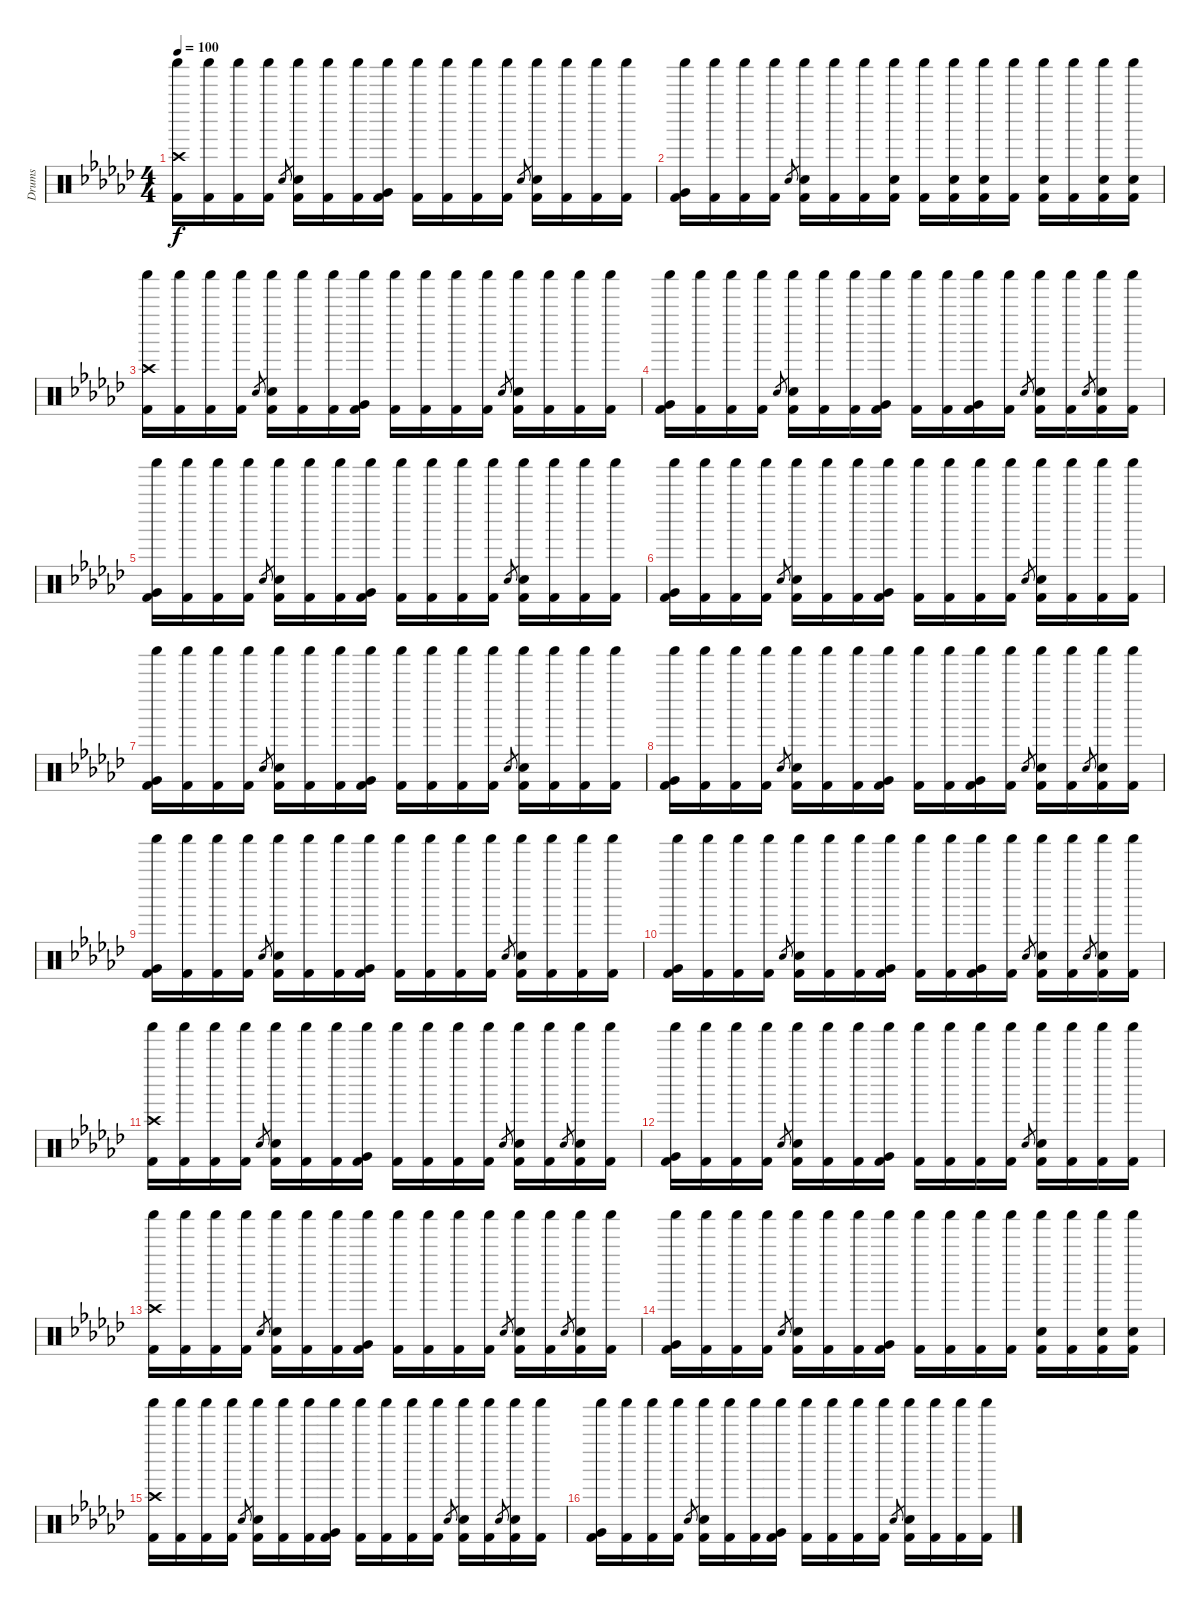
\track ("Drums" "Drums") {instrument percussion}
\staff {score}
\articulation defaults
\ts (4 4)
\tempo 100
\clef neutral
\ks gb
("Crash high (hit)" "Shaker (hit)" "Kick (hit) 2").16{dy f} ("Shaker (hit)" "Kick (hit) 2").16 ("Shaker (hit)" "Kick (hit) 2").16 ("Shaker (hit)" "Kick (hit) 2").16 "Electric Snare (hit)".8{gr} ("Shaker (hit)" "Electric Snare (hit)" "Kick (hit) 2").16 ("Shaker (hit)" "Kick (hit) 2").16 ("Shaker (hit)" "Kick (hit) 2").16 ("Shaker (hit)" "Very Low Tom (hit)" "Kick (hit) 2").16 ("Shaker (hit)" "Kick (hit) 2").16 ("Shaker (hit)" "Kick (hit) 2").16 ("Shaker (hit)" "Kick (hit) 2").16 ("Shaker (hit)" "Kick (hit) 2").16 "Electric Snare (hit)".8{gr} ("Shaker (hit)" "Electric Snare (hit)" "Kick (hit) 2").16 ("Shaker (hit)" "Kick (hit) 2").16 ("Shaker (hit)" "Kick (hit) 2").16 ("Shaker (hit)" "Kick (hit) 2").16 |
("Shaker (hit)" "Very Low Tom (hit)" "Kick (hit) 2").16 ("Shaker (hit)" "Kick (hit) 2").16 ("Shaker (hit)" "Kick (hit) 2").16 ("Shaker (hit)" "Kick (hit) 2").16 "Electric Snare (hit)".8{gr} ("Shaker (hit)" "Electric Snare (hit)" "Kick (hit) 2").16 ("Shaker (hit)" "Kick (hit) 2").16 ("Shaker (hit)" "Kick (hit) 2").16 ("Shaker (hit)" "Electric Snare (hit)" "Kick (hit) 2").16 ("Shaker (hit)" "Kick (hit) 2").16 ("Shaker (hit)" "Electric Snare (hit)" "Kick (hit) 2").16 ("Shaker (hit)" "Electric Snare (hit)" "Kick (hit) 2").16 ("Shaker (hit)" "Kick (hit) 2").16 ("Shaker (hit)" "Electric Snare (hit)" "Kick (hit) 2").16 ("Shaker (hit)" "Kick (hit) 2").16 ("Shaker (hit)" "Electric Snare (hit)" "Kick (hit) 2").16 ("Shaker (hit)" "Electric Snare (hit)" "Kick (hit) 2").16 |
("Crash high (hit)" "Shaker (hit)" "Kick (hit) 2").16 ("Shaker (hit)" "Kick (hit) 2").16 ("Shaker (hit)" "Kick (hit) 2").16 ("Shaker (hit)" "Kick (hit) 2").16 "Electric Snare (hit)".8{gr} ("Shaker (hit)" "Electric Snare (hit)" "Kick (hit) 2").16 ("Shaker (hit)" "Kick (hit) 2").16 ("Shaker (hit)" "Kick (hit) 2").16 ("Shaker (hit)" "Very Low Tom (hit)" "Kick (hit) 2").16 ("Shaker (hit)" "Kick (hit) 2").16 ("Shaker (hit)" "Kick (hit) 2").16 ("Shaker (hit)" "Kick (hit) 2").16 ("Shaker (hit)" "Kick (hit) 2").16 "Electric Snare (hit)".8{gr} ("Shaker (hit)" "Electric Snare (hit)" "Kick (hit) 2").16 ("Shaker (hit)" "Kick (hit) 2").16 ("Shaker (hit)" "Kick (hit) 2").16 ("Shaker (hit)" "Kick (hit) 2").16 |
("Shaker (hit)" "Very Low Tom (hit)" "Kick (hit) 2").16 ("Shaker (hit)" "Kick (hit) 2").16 ("Shaker (hit)" "Kick (hit) 2").16 ("Shaker (hit)" "Kick (hit) 2").16 "Electric Snare (hit)".8{gr} ("Shaker (hit)" "Electric Snare (hit)" "Kick (hit) 2").16 ("Shaker (hit)" "Kick (hit) 2").16 ("Shaker (hit)" "Kick (hit) 2").16 ("Shaker (hit)" "Very Low Tom (hit)" "Kick (hit) 2").16 ("Shaker (hit)" "Kick (hit) 2").16 ("Shaker (hit)" "Kick (hit) 2").16 ("Shaker (hit)" "Very Low Tom (hit)" "Kick (hit) 2").16 ("Shaker (hit)" "Kick (hit) 2").16 "Electric Snare (hit)".8{gr} ("Shaker (hit)" "Electric Snare (hit)" "Kick (hit) 2").16 ("Shaker (hit)" "Kick (hit) 2").16 "Electric Snare (hit)".8{gr} ("Shaker (hit)" "Electric Snare (hit)" "Kick (hit) 2").16 ("Shaker (hit)" "Kick (hit) 2").16 |
("Shaker (hit)" "Very Low Tom (hit)" "Kick (hit) 2").16 ("Shaker (hit)" "Kick (hit) 2").16 ("Shaker (hit)" "Kick (hit) 2").16 ("Shaker (hit)" "Kick (hit) 2").16 "Electric Snare (hit)".8{gr} ("Shaker (hit)" "Electric Snare (hit)" "Kick (hit) 2").16 ("Shaker (hit)" "Kick (hit) 2").16 ("Shaker (hit)" "Kick (hit) 2").16 ("Shaker (hit)" "Very Low Tom (hit)" "Kick (hit) 2").16 ("Shaker (hit)" "Kick (hit) 2").16 ("Shaker (hit)" "Kick (hit) 2").16 ("Shaker (hit)" "Kick (hit) 2").16 ("Shaker (hit)" "Kick (hit) 2").16 "Electric Snare (hit)".8{gr} ("Shaker (hit)" "Electric Snare (hit)" "Kick (hit) 2").16 ("Shaker (hit)" "Kick (hit) 2").16 ("Shaker (hit)" "Kick (hit) 2").16 ("Shaker (hit)" "Kick (hit) 2").16 |
("Shaker (hit)" "Very Low Tom (hit)" "Kick (hit) 2").16 ("Shaker (hit)" "Kick (hit) 2").16 ("Shaker (hit)" "Kick (hit) 2").16 ("Shaker (hit)" "Kick (hit) 2").16 "Electric Snare (hit)".8{gr} ("Shaker (hit)" "Electric Snare (hit)" "Kick (hit) 2").16 ("Shaker (hit)" "Kick (hit) 2").16 ("Shaker (hit)" "Kick (hit) 2").16 ("Shaker (hit)" "Very Low Tom (hit)" "Kick (hit) 2").16 ("Shaker (hit)" "Kick (hit) 2").16 ("Shaker (hit)" "Kick (hit) 2").16 ("Shaker (hit)" "Kick (hit) 2").16 ("Shaker (hit)" "Kick (hit) 2").16 "Electric Snare (hit)".8{gr} ("Shaker (hit)" "Electric Snare (hit)" "Kick (hit) 2").16 ("Shaker (hit)" "Kick (hit) 2").16 ("Shaker (hit)" "Kick (hit) 2").16 ("Shaker (hit)" "Kick (hit) 2").16 |
("Shaker (hit)" "Very Low Tom (hit)" "Kick (hit) 2").16 ("Shaker (hit)" "Kick (hit) 2").16 ("Shaker (hit)" "Kick (hit) 2").16 ("Shaker (hit)" "Kick (hit) 2").16 "Electric Snare (hit)".8{gr} ("Shaker (hit)" "Electric Snare (hit)" "Kick (hit) 2").16 ("Shaker (hit)" "Kick (hit) 2").16 ("Shaker (hit)" "Kick (hit) 2").16 ("Shaker (hit)" "Very Low Tom (hit)" "Kick (hit) 2").16 ("Shaker (hit)" "Kick (hit) 2").16 ("Shaker (hit)" "Kick (hit) 2").16 ("Shaker (hit)" "Kick (hit) 2").16 ("Shaker (hit)" "Kick (hit) 2").16 "Electric Snare (hit)".8{gr} ("Shaker (hit)" "Electric Snare (hit)" "Kick (hit) 2").16 ("Shaker (hit)" "Kick (hit) 2").16 ("Shaker (hit)" "Kick (hit) 2").16 ("Shaker (hit)" "Kick (hit) 2").16 |
("Shaker (hit)" "Very Low Tom (hit)" "Kick (hit) 2").16 ("Shaker (hit)" "Kick (hit) 2").16 ("Shaker (hit)" "Kick (hit) 2").16 ("Shaker (hit)" "Kick (hit) 2").16 "Electric Snare (hit)".8{gr} ("Shaker (hit)" "Electric Snare (hit)" "Kick (hit) 2").16 ("Shaker (hit)" "Kick (hit) 2").16 ("Shaker (hit)" "Kick (hit) 2").16 ("Shaker (hit)" "Very Low Tom (hit)" "Kick (hit) 2").16 ("Shaker (hit)" "Kick (hit) 2").16 ("Shaker (hit)" "Kick (hit) 2").16 ("Shaker (hit)" "Very Low Tom (hit)" "Kick (hit) 2").16 ("Shaker (hit)" "Kick (hit) 2").16 "Electric Snare (hit)".8{gr} ("Shaker (hit)" "Electric Snare (hit)" "Kick (hit) 2").16 ("Shaker (hit)" "Kick (hit) 2").16 "Electric Snare (hit)".8{gr} ("Shaker (hit)" "Electric Snare (hit)" "Kick (hit) 2").16 ("Shaker (hit)" "Kick (hit) 2").16 |
("Shaker (hit)" "Very Low Tom (hit)" "Kick (hit) 2").16 ("Shaker (hit)" "Kick (hit) 2").16 ("Shaker (hit)" "Kick (hit) 2").16 ("Shaker (hit)" "Kick (hit) 2").16 "Electric Snare (hit)".8{gr} ("Shaker (hit)" "Electric Snare (hit)" "Kick (hit) 2").16 ("Shaker (hit)" "Kick (hit) 2").16 ("Shaker (hit)" "Kick (hit) 2").16 ("Shaker (hit)" "Very Low Tom (hit)" "Kick (hit) 2").16 ("Shaker (hit)" "Kick (hit) 2").16 ("Shaker (hit)" "Kick (hit) 2").16 ("Shaker (hit)" "Kick (hit) 2").16 ("Shaker (hit)" "Kick (hit) 2").16 "Electric Snare (hit)".8{gr} ("Shaker (hit)" "Electric Snare (hit)" "Kick (hit) 2").16 ("Shaker (hit)" "Kick (hit) 2").16 ("Shaker (hit)" "Kick (hit) 2").16 ("Shaker (hit)" "Kick (hit) 2").16 |
("Shaker (hit)" "Very Low Tom (hit)" "Kick (hit) 2").16 ("Shaker (hit)" "Kick (hit) 2").16 ("Shaker (hit)" "Kick (hit) 2").16 ("Shaker (hit)" "Kick (hit) 2").16 "Electric Snare (hit)".8{gr} ("Shaker (hit)" "Electric Snare (hit)" "Kick (hit) 2").16 ("Shaker (hit)" "Kick (hit) 2").16 ("Shaker (hit)" "Kick (hit) 2").16 ("Shaker (hit)" "Very Low Tom (hit)" "Kick (hit) 2").16 ("Shaker (hit)" "Kick (hit) 2").16 ("Shaker (hit)" "Kick (hit) 2").16 ("Shaker (hit)" "Very Low Tom (hit)" "Kick (hit) 2").16 ("Shaker (hit)" "Kick (hit) 2").16 "Electric Snare (hit)".8{gr} ("Shaker (hit)" "Electric Snare (hit)" "Kick (hit) 2").16 ("Shaker (hit)" "Kick (hit) 2").16 "Electric Snare (hit)".8{gr} ("Shaker (hit)" "Electric Snare (hit)" "Kick (hit) 2").16 ("Shaker (hit)" "Kick (hit) 2").16 |
("Crash high (hit)" "Shaker (hit)" "Kick (hit) 2").16 ("Shaker (hit)" "Kick (hit) 2").16 ("Shaker (hit)" "Kick (hit) 2").16 ("Shaker (hit)" "Kick (hit) 2").16 "Electric Snare (hit)".8{gr} ("Shaker (hit)" "Electric Snare (hit)" "Kick (hit) 2").16 ("Shaker (hit)" "Kick (hit) 2").16 ("Shaker (hit)" "Kick (hit) 2").16 ("Shaker (hit)" "Very Low Tom (hit)" "Kick (hit) 2").16 ("Shaker (hit)" "Kick (hit) 2").16 ("Shaker (hit)" "Kick (hit) 2").16 ("Shaker (hit)" "Kick (hit) 2").16 ("Shaker (hit)" "Kick (hit) 2").16 "Electric Snare (hit)".8{gr} ("Shaker (hit)" "Electric Snare (hit)" "Kick (hit) 2").16 ("Shaker (hit)" "Kick (hit) 2").16 "Electric Snare (hit)".8{gr} ("Shaker (hit)" "Electric Snare (hit)" "Kick (hit) 2").16 ("Shaker (hit)" "Kick (hit) 2").16 |
("Shaker (hit)" "Very Low Tom (hit)" "Kick (hit) 2").16 ("Shaker (hit)" "Kick (hit) 2").16 ("Shaker (hit)" "Kick (hit) 2").16 ("Shaker (hit)" "Kick (hit) 2").16 "Electric Snare (hit)".8{gr} ("Shaker (hit)" "Electric Snare (hit)" "Kick (hit) 2").16 ("Shaker (hit)" "Kick (hit) 2").16 ("Shaker (hit)" "Kick (hit) 2").16 ("Shaker (hit)" "Very Low Tom (hit)" "Kick (hit) 2").16 ("Shaker (hit)" "Kick (hit) 2").16 ("Shaker (hit)" "Kick (hit) 2").16 ("Shaker (hit)" "Kick (hit) 2").16 ("Shaker (hit)" "Kick (hit) 2").16 "Electric Snare (hit)".8{gr} ("Shaker (hit)" "Electric Snare (hit)" "Kick (hit) 2").16 ("Shaker (hit)" "Kick (hit) 2").16 ("Shaker (hit)" "Kick (hit) 2").16 ("Shaker (hit)" "Kick (hit) 2").16 |
("Crash high (hit)" "Shaker (hit)" "Kick (hit) 2").16 ("Shaker (hit)" "Kick (hit) 2").16 ("Shaker (hit)" "Kick (hit) 2").16 ("Shaker (hit)" "Kick (hit) 2").16 "Electric Snare (hit)".8{gr} ("Shaker (hit)" "Electric Snare (hit)" "Kick (hit) 2").16 ("Shaker (hit)" "Kick (hit) 2").16 ("Shaker (hit)" "Kick (hit) 2").16 ("Shaker (hit)" "Very Low Tom (hit)" "Kick (hit) 2").16 ("Shaker (hit)" "Kick (hit) 2").16 ("Shaker (hit)" "Kick (hit) 2").16 ("Shaker (hit)" "Kick (hit) 2").16 ("Shaker (hit)" "Kick (hit) 2").16 "Electric Snare (hit)".8{gr} ("Shaker (hit)" "Electric Snare (hit)" "Kick (hit) 2").16 ("Shaker (hit)" "Kick (hit) 2").16 "Electric Snare (hit)".8{gr} ("Shaker (hit)" "Electric Snare (hit)" "Kick (hit) 2").16 ("Shaker (hit)" "Kick (hit) 2").16 |
("Shaker (hit)" "Very Low Tom (hit)" "Kick (hit) 2").16 ("Shaker (hit)" "Kick (hit) 2").16 ("Shaker (hit)" "Kick (hit) 2").16 ("Shaker (hit)" "Kick (hit) 2").16 "Electric Snare (hit)".8{gr} ("Shaker (hit)" "Electric Snare (hit)" "Kick (hit) 2").16 ("Shaker (hit)" "Kick (hit) 2").16 ("Shaker (hit)" "Kick (hit) 2").16 ("Shaker (hit)" "Very Low Tom (hit)" "Kick (hit) 2").16 ("Shaker (hit)" "Kick (hit) 2").16 ("Shaker (hit)" "Kick (hit) 2").16 ("Shaker (hit)" "Kick (hit) 2").16 ("Shaker (hit)" "Kick (hit) 2").16 ("Shaker (hit)" "Electric Snare (hit)" "Kick (hit) 2").16 ("Shaker (hit)" "Kick (hit) 2").16 ("Shaker (hit)" "Electric Snare (hit)" "Kick (hit) 2").16 ("Shaker (hit)" "Electric Snare (hit)" "Kick (hit) 2").16 |
("Crash high (hit)" "Shaker (hit)" "Kick (hit) 2").16 ("Shaker (hit)" "Kick (hit) 2").16 ("Shaker (hit)" "Kick (hit) 2").16 ("Shaker (hit)" "Kick (hit) 2").16 "Electric Snare (hit)".8{gr} ("Shaker (hit)" "Electric Snare (hit)" "Kick (hit) 2").16 ("Shaker (hit)" "Kick (hit) 2").16 ("Shaker (hit)" "Kick (hit) 2").16 ("Shaker (hit)" "Very Low Tom (hit)" "Kick (hit) 2").16 ("Shaker (hit)" "Kick (hit) 2").16 ("Shaker (hit)" "Kick (hit) 2").16 ("Shaker (hit)" "Kick (hit) 2").16 ("Shaker (hit)" "Kick (hit) 2").16 "Electric Snare (hit)".8{gr} ("Shaker (hit)" "Electric Snare (hit)" "Kick (hit) 2").16 ("Shaker (hit)" "Kick (hit) 2").16 "Electric Snare (hit)".8{gr} ("Shaker (hit)" "Electric Snare (hit)" "Kick (hit) 2").16 ("Shaker (hit)" "Kick (hit) 2").16 |
("Shaker (hit)" "Very Low Tom (hit)" "Kick (hit) 2").16 ("Shaker (hit)" "Kick (hit) 2").16 ("Shaker (hit)" "Kick (hit) 2").16 ("Shaker (hit)" "Kick (hit) 2").16 "Electric Snare (hit)".8{gr} ("Shaker (hit)" "Electric Snare (hit)" "Kick (hit) 2").16 ("Shaker (hit)" "Kick (hit) 2").16 ("Shaker (hit)" "Kick (hit) 2").16 ("Shaker (hit)" "Very Low Tom (hit)" "Kick (hit) 2").16 ("Shaker (hit)" "Kick (hit) 2").16 ("Shaker (hit)" "Kick (hit) 2").16 ("Shaker (hit)" "Kick (hit) 2").16 ("Shaker (hit)" "Kick (hit) 2").16 "Electric Snare (hit)".8{gr} ("Shaker (hit)" "Electric Snare (hit)" "Kick (hit) 2").16 ("Shaker (hit)" "Kick (hit) 2").16 ("Shaker (hit)" "Kick (hit) 2").16 ("Shaker (hit)" "Kick (hit) 2").16
